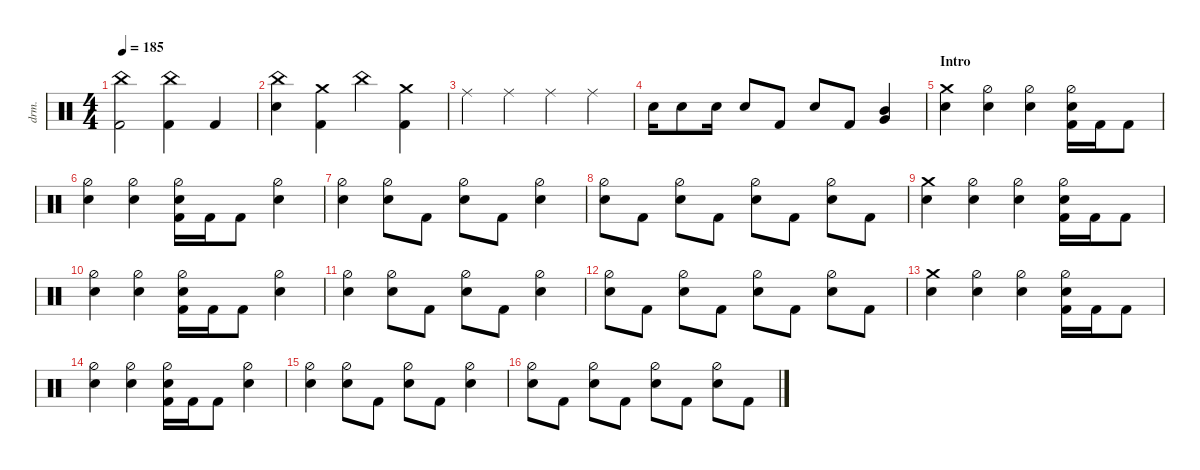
\defaultSystemsLayout 4
\hideDynamics
\bracketExtendMode nobrackets
\track ("Drums - Šimon" "drm.") {instrument percussion}
\staff {score}
\articulation defaults
\ts (4 4)
\tempo 185
\clef neutral
\ks c
("Kick (hit) 2" "China (hit)").2{dy ff} ("Kick (hit) 2" "China (hit)").4 "Kick (hit) 2".4 |
("Snare (hit) 2" "China (hit)").4 ("Kick (hit) 2" "Crash medium (hit)").4 "China (hit)".4 ("Kick (hit) 2" "Crash medium (hit)").4 |
"Ride (middle)".4 "Ride (middle)".4 "Ride (middle)".4 "Ride (middle)".4 |
"Snare (hit) 2".16 "Snare (hit) 2".8 "Snare (hit) 2".16 "Snare (hit) 2".8 "Kick (hit) 2".8 "Snare (hit) 2".8 "Kick (hit) 2".8 ("Very Low Tom (hit)" "Mid Tom (hit)").4 |
\section ("" "Intro")
("Crash medium (hit)" "Snare (hit) 2").4 ("Snare (hit) 2" "Hi-Hat (half)").4 ("Snare (hit) 2" "Hi-Hat (half)").4 ("Kick (hit) 2" "Snare (hit) 2" "Hi-Hat (half)").16 "Kick (hit) 2".16 "Kick (hit) 2".8 |
("Snare (hit) 2" "Hi-Hat (half)").4 ("Snare (hit) 2" "Hi-Hat (half)").4 ("Snare (hit) 2" "Kick (hit) 2" "Hi-Hat (half)").16 "Kick (hit) 2".16 "Kick (hit) 2".8 ("Hi-Hat (half)" "Snare (hit) 2").4 |
("Snare (hit) 2" "Hi-Hat (half)").4 ("Snare (hit) 2" "Hi-Hat (half)").8 "Kick (hit) 2".8 ("Snare (hit) 2" "Hi-Hat (half)").8 "Kick (hit) 2".8 ("Snare (hit) 2" "Hi-Hat (half)").4 |
("Snare (hit) 2" "Hi-Hat (half)").8 "Kick (hit) 2".8 ("Hi-Hat (half)" "Snare (hit) 2").8 "Kick (hit) 2".8 ("Snare (hit) 2" "Hi-Hat (half)").8 "Kick (hit) 2".8 ("Hi-Hat (half)" "Snare (hit) 2").8 "Kick (hit) 2".8 |
("Crash medium (hit)" "Snare (hit) 2").4 ("Hi-Hat (half)" "Snare (hit) 2").4 ("Snare (hit) 2" "Hi-Hat (half)").4 ("Kick (hit) 2" "Hi-Hat (half)" "Snare (hit) 2").16 "Kick (hit) 2".16 "Kick (hit) 2".8 |
("Snare (hit) 2" "Hi-Hat (half)").4 ("Snare (hit) 2" "Hi-Hat (half)").4 ("Snare (hit) 2" "Kick (hit) 2" "Hi-Hat (half)").16 "Kick (hit) 2".16 "Kick (hit) 2".8 ("Hi-Hat (half)" "Snare (hit) 2").4 |
("Snare (hit) 2" "Hi-Hat (half)").4 ("Snare (hit) 2" "Hi-Hat (half)").8 "Kick (hit) 2".8 ("Snare (hit) 2" "Hi-Hat (half)").8 "Kick (hit) 2".8 ("Snare (hit) 2" "Hi-Hat (half)").4 |
("Snare (hit) 2" "Hi-Hat (half)").8 "Kick (hit) 2".8 ("Hi-Hat (half)" "Snare (hit) 2").8 "Kick (hit) 2".8 ("Snare (hit) 2" "Hi-Hat (half)").8 "Kick (hit) 2".8 ("Hi-Hat (half)" "Snare (hit) 2").8 "Kick (hit) 2".8 |
("Crash medium (hit)" "Snare (hit) 2").4 ("Snare (hit) 2" "Hi-Hat (half)").4 ("Snare (hit) 2" "Hi-Hat (half)").4 ("Kick (hit) 2" "Snare (hit) 2" "Hi-Hat (half)").16 "Kick (hit) 2".16 "Kick (hit) 2".8 |
("Snare (hit) 2" "Hi-Hat (half)").4 ("Snare (hit) 2" "Hi-Hat (half)").4 ("Snare (hit) 2" "Kick (hit) 2" "Hi-Hat (half)").16 "Kick (hit) 2".16 "Kick (hit) 2".8 ("Hi-Hat (half)" "Snare (hit) 2").4 |
("Snare (hit) 2" "Hi-Hat (half)").4 ("Snare (hit) 2" "Hi-Hat (half)").8 "Kick (hit) 2".8 ("Snare (hit) 2" "Hi-Hat (half)").8 "Kick (hit) 2".8 ("Snare (hit) 2" "Hi-Hat (half)").4 |
("Snare (hit) 2" "Hi-Hat (half)").8 "Kick (hit) 2".8 ("Hi-Hat (half)" "Snare (hit) 2").8 "Kick (hit) 2".8 ("Snare (hit) 2" "Hi-Hat (half)").8 "Kick (hit) 2".8 ("Hi-Hat (half)" "Snare (hit) 2").8 "Kick (hit) 2".8
